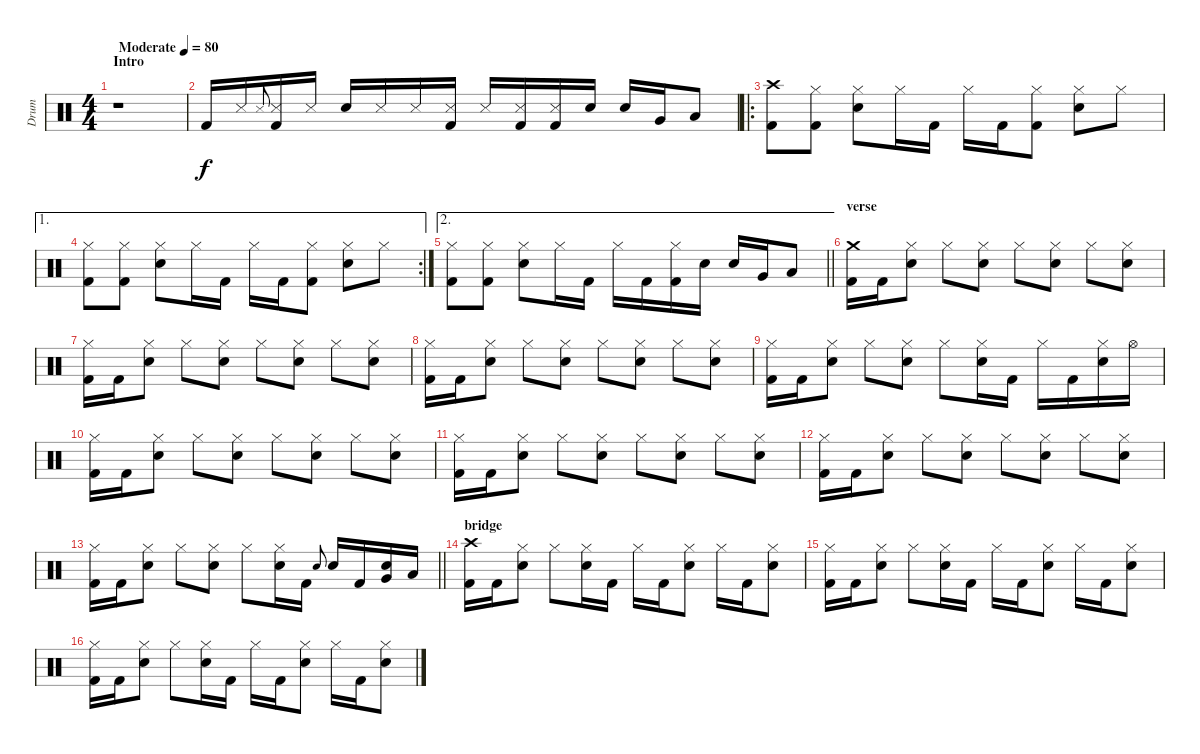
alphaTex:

\track ("Drum" "Drum") {instrument percussion}
\staff {score}
\articulation defaults
\ts (4 4)
\section ("" "Intro")
\tempo (80 "Moderate")
\clef neutral
\ks c
r.1{dy f} |
"Kick (hit) 2".16 "Metronome (hit)".16 "Metronome (hit)".8{gr onbeat} ("Kick (hit) 2" "Metronome (hit)").16 "Metronome (hit)".16 "Electric Snare (hit)".16 "Metronome (hit)".16 "Metronome (hit)".16 ("Kick (hit) 2" "Metronome (hit)").16 "Metronome (hit)".16 ("Kick (hit) 2" "Metronome (hit)").16 ("Kick (hit) 2" "Metronome (hit)").16 "Electric Snare (hit)".16 "Electric Snare (hit)".16 "Very Low Tom (hit)".16 "Low Floor Tom (hit)".8 |
\ro
("Crash high (hit)" "Kick (hit) 2").8 ("Hi-Hat (closed)" "Kick (hit) 2").8 ("Hi-Hat (closed)" "Electric Snare (hit)").8 "Hi-Hat (closed)".16 "Kick (hit) 2".16 "Hi-Hat (closed)".16 "Kick (hit) 2".16 ("Hi-Hat (closed)" "Kick (hit) 2").8 ("Hi-Hat (closed)" "Electric Snare (hit)").8 "Hi-Hat (closed)".8 |
\ae 1
\rc 2
("Hi-Hat (closed)" "Kick (hit) 2").8 ("Hi-Hat (closed)" "Kick (hit) 2").8 ("Hi-Hat (closed)" "Electric Snare (hit)").8 "Hi-Hat (closed)".16 "Kick (hit) 2".16 "Hi-Hat (closed)".16 "Kick (hit) 2".16 ("Hi-Hat (closed)" "Kick (hit) 2").8 ("Hi-Hat (closed)" "Electric Snare (hit)").8 "Hi-Hat (closed)".8 |
\ae 2
\barLineRight lightlight
("Hi-Hat (closed)" "Kick (hit) 2").8 ("Hi-Hat (closed)" "Kick (hit) 2").8 ("Hi-Hat (closed)" "Electric Snare (hit)").8 "Hi-Hat (closed)".16 "Kick (hit) 2".16 "Hi-Hat (closed)".16 "Kick (hit) 2".16 ("Hi-Hat (closed)" "Kick (hit) 2").16 "Electric Snare (hit)".16 "Electric Snare (hit)".16 "Very Low Tom (hit)".16 "Low Floor Tom (hit)".8 |
\section ("" "verse")
("Crash medium (hit)" "Kick (hit) 2").16 "Kick (hit) 2".16 ("Hi-Hat (closed)" "Electric Snare (hit)").8 "Hi-Hat (closed)".8 ("Hi-Hat (closed)" "Electric Snare (hit)").8 "Hi-Hat (closed)".8 ("Hi-Hat (closed)" "Electric Snare (hit)").8 "Hi-Hat (closed)".8 ("Hi-Hat (closed)" "Electric Snare (hit)").8 |
("Hi-Hat (closed)" "Kick (hit) 2").16 "Kick (hit) 2".16 ("Hi-Hat (closed)" "Electric Snare (hit)").8 "Hi-Hat (closed)".8 ("Hi-Hat (closed)" "Electric Snare (hit)").8 "Hi-Hat (closed)".8 ("Hi-Hat (closed)" "Electric Snare (hit)").8 "Hi-Hat (closed)".8 ("Hi-Hat (closed)" "Electric Snare (hit)").8 |
("Hi-Hat (closed)" "Kick (hit) 2").16 "Kick (hit) 2".16 ("Hi-Hat (closed)" "Electric Snare (hit)").8 "Hi-Hat (closed)".8 ("Hi-Hat (closed)" "Electric Snare (hit)").8 "Hi-Hat (closed)".8 ("Hi-Hat (closed)" "Electric Snare (hit)").8 "Hi-Hat (closed)".8 ("Hi-Hat (closed)" "Electric Snare (hit)").8 |
("Hi-Hat (closed)" "Kick (hit) 2").16 "Kick (hit) 2".16 ("Hi-Hat (closed)" "Electric Snare (hit)").8 "Hi-Hat (closed)".8 ("Hi-Hat (closed)" "Electric Snare (hit)").8 "Hi-Hat (closed)".8 ("Hi-Hat (closed)" "Electric Snare (hit)").16 "Kick (hit) 2".16 "Hi-Hat (closed)".16 "Kick (hit) 2".16 ("Hi-Hat (closed)" "Electric Snare (hit)").16 "Hi-Hat (open)".16 |
("Hi-Hat (closed)" "Kick (hit) 2").16 "Kick (hit) 2".16 ("Hi-Hat (closed)" "Electric Snare (hit)").8 "Hi-Hat (closed)".8 ("Hi-Hat (closed)" "Electric Snare (hit)").8 "Hi-Hat (closed)".8 ("Hi-Hat (closed)" "Electric Snare (hit)").8 "Hi-Hat (closed)".8 ("Hi-Hat (closed)" "Electric Snare (hit)").8 |
("Hi-Hat (closed)" "Kick (hit) 2").16 "Kick (hit) 2".16 ("Hi-Hat (closed)" "Electric Snare (hit)").8 "Hi-Hat (closed)".8 ("Hi-Hat (closed)" "Electric Snare (hit)").8 "Hi-Hat (closed)".8 ("Hi-Hat (closed)" "Electric Snare (hit)").8 "Hi-Hat (closed)".8 ("Hi-Hat (closed)" "Electric Snare (hit)").8 |
("Hi-Hat (closed)" "Kick (hit) 2").16 "Kick (hit) 2".16 ("Hi-Hat (closed)" "Electric Snare (hit)").8 "Hi-Hat (closed)".8 ("Hi-Hat (closed)" "Electric Snare (hit)").8 "Hi-Hat (closed)".8 ("Hi-Hat (closed)" "Electric Snare (hit)").8 "Hi-Hat (closed)".8 ("Hi-Hat (closed)" "Electric Snare (hit)").8 |
\barLineRight lightlight
("Hi-Hat (closed)" "Kick (hit) 2").16 "Kick (hit) 2".16 ("Hi-Hat (closed)" "Electric Snare (hit)").8 "Hi-Hat (closed)".8 ("Hi-Hat (closed)" "Electric Snare (hit)").8 "Hi-Hat (closed)".8 ("Hi-Hat (closed)" "Electric Snare (hit)").16 "Kick (hit) 2".16 "Electric Snare (hit)".8{gr onbeat} "Electric Snare (hit)".16 "Kick (hit) 2".16 ("Electric Snare (hit)" "Very Low Tom (hit)").16 "Low Floor Tom (hit)".16 |
\section ("" "bridge")
("Crash high (hit)" "Kick (hit) 2").16 "Kick (hit) 2".16 ("Hi-Hat (closed)" "Electric Snare (hit)").8 "Hi-Hat (closed)".8 ("Hi-Hat (closed)" "Electric Snare (hit)").16 "Kick (hit) 2".16 "Hi-Hat (closed)".16 "Kick (hit) 2".16 ("Hi-Hat (closed)" "Electric Snare (hit)").8 "Hi-Hat (closed)".16 "Kick (hit) 2".16 ("Hi-Hat (closed)" "Electric Snare (hit)").8 |
("Hi-Hat (closed)" "Kick (hit) 2").16 "Kick (hit) 2".16 ("Hi-Hat (closed)" "Electric Snare (hit)").8 "Hi-Hat (closed)".8 ("Hi-Hat (closed)" "Electric Snare (hit)").16 "Kick (hit) 2".16 "Hi-Hat (closed)".16 "Kick (hit) 2".16 ("Hi-Hat (closed)" "Electric Snare (hit)").8 "Hi-Hat (closed)".16 "Kick (hit) 2".16 ("Hi-Hat (closed)" "Electric Snare (hit)").8 |
("Hi-Hat (closed)" "Kick (hit) 2").16 "Kick (hit) 2".16 ("Hi-Hat (closed)" "Electric Snare (hit)").8 "Hi-Hat (closed)".8 ("Hi-Hat (closed)" "Electric Snare (hit)").16 "Kick (hit) 2".16 "Hi-Hat (closed)".16 "Kick (hit) 2".16 ("Hi-Hat (closed)" "Electric Snare (hit)").8 "Hi-Hat (closed)".16 "Kick (hit) 2".16 ("Hi-Hat (closed)" "Electric Snare (hit)").8
